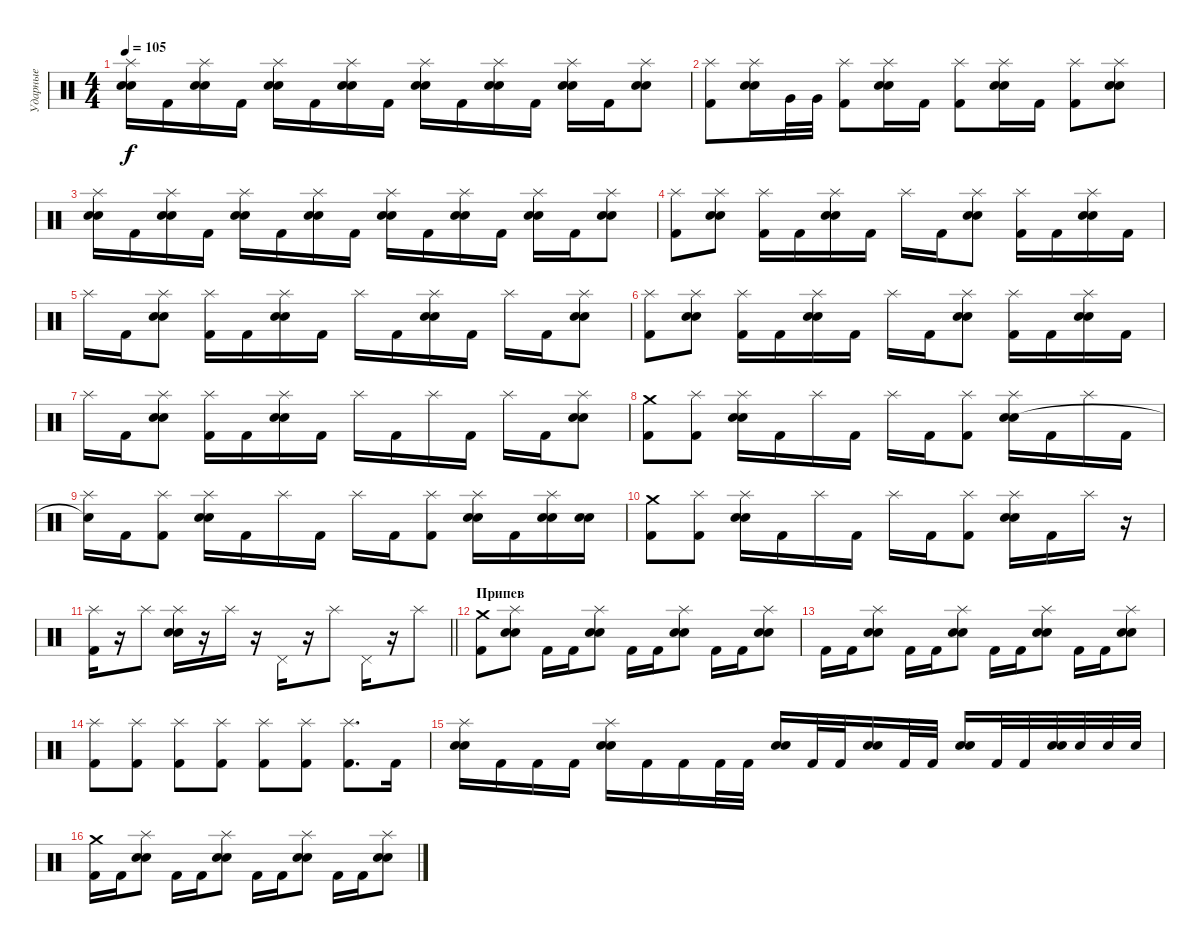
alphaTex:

\track ("Ударные" "Ударные") {instrument percussion}
\staff {score}
\articulation defaults
\ts (4 4)
\tempo 105
\clef neutral
\ks c
("Splash (hit)" "Electric Snare (hit)" "Snare (hit) 2").16{dy f} "Kick (hit) 2".16 ("Splash (hit)" "Electric Snare (hit)" "Snare (hit) 2").16 "Kick (hit) 2".16 ("Splash (hit)" "Electric Snare (hit)" "Snare (hit) 2").16 "Kick (hit) 2".16 ("Splash (hit)" "Electric Snare (hit)" "Snare (hit) 2").16 "Kick (hit) 2".16 ("Splash (hit)" "Electric Snare (hit)" "Snare (hit) 2").16 "Kick (hit) 2".16 ("Splash (hit)" "Electric Snare (hit)" "Snare (hit) 2").16 "Kick (hit) 2".16 ("Splash (hit)" "Electric Snare (hit)" "Snare (hit) 2").16 "Kick (hit) 2".16 ("Splash (hit)" "Electric Snare (hit)" "Snare (hit) 2").8 |
("Splash (hit)" "Kick (hit) 2").8 ("Splash (hit)" "Electric Snare (hit)" "Snare (hit) 2").16 "Very Low Tom (hit)".32 "Very Low Tom (hit)".32 ("Splash (hit)" "Kick (hit) 2").8 ("Splash (hit)" "Electric Snare (hit)" "Snare (hit) 2").16 "Kick (hit) 2".16 ("Splash (hit)" "Kick (hit) 2").8 ("Splash (hit)" "Electric Snare (hit)" "Snare (hit) 2").16 "Kick (hit) 2".16 ("Splash (hit)" "Kick (hit) 2").8 ("Splash (hit)" "Electric Snare (hit)" "Snare (hit) 2").8 |
("Splash (hit)" "Electric Snare (hit)" "Snare (hit) 2").16 "Kick (hit) 2".16 ("Splash (hit)" "Electric Snare (hit)" "Snare (hit) 2").16 "Kick (hit) 2".16 ("Splash (hit)" "Electric Snare (hit)" "Snare (hit) 2").16 "Kick (hit) 2".16 ("Splash (hit)" "Electric Snare (hit)" "Snare (hit) 2").16 "Kick (hit) 2".16 ("Splash (hit)" "Electric Snare (hit)" "Snare (hit) 2").16 "Kick (hit) 2".16 ("Splash (hit)" "Electric Snare (hit)" "Snare (hit) 2").16 "Kick (hit) 2".16 ("Splash (hit)" "Electric Snare (hit)" "Snare (hit) 2").16 "Kick (hit) 2".16 ("Splash (hit)" "Electric Snare (hit)" "Snare (hit) 2").8 |
("Splash (hit)" "Kick (hit) 2").8 ("Splash (hit)" "Electric Snare (hit)" "Snare (hit) 2").8 ("Splash (hit)" "Kick (hit) 2").16 "Kick (hit) 2".16 ("Splash (hit)" "Electric Snare (hit)" "Snare (hit) 2").16 "Kick (hit) 2".16 "Splash (hit)".16 "Kick (hit) 2".16 ("Splash (hit)" "Electric Snare (hit)" "Snare (hit) 2").8 ("Splash (hit)" "Kick (hit) 2").16 "Kick (hit) 2".16 ("Splash (hit)" "Electric Snare (hit)" "Snare (hit) 2").16 "Kick (hit) 2".16 |
"Splash (hit)".16 "Kick (hit) 2".16 ("Splash (hit)" "Electric Snare (hit)" "Snare (hit) 2").8 ("Splash (hit)" "Kick (hit) 2").16 "Kick (hit) 2".16 ("Splash (hit)" "Electric Snare (hit)" "Snare (hit) 2").16 "Kick (hit) 2".16 "Splash (hit)".16 "Kick (hit) 2".16 ("Splash (hit)" "Electric Snare (hit)" "Snare (hit) 2").16 "Kick (hit) 2".16 "Splash (hit)".16 "Kick (hit) 2".16 ("Splash (hit)" "Electric Snare (hit)" "Snare (hit) 2").8 |
("Splash (hit)" "Kick (hit) 2").8 ("Splash (hit)" "Electric Snare (hit)" "Snare (hit) 2").8 ("Splash (hit)" "Kick (hit) 2").16 "Kick (hit) 2".16 ("Splash (hit)" "Electric Snare (hit)" "Snare (hit) 2").16 "Kick (hit) 2".16 "Splash (hit)".16 "Kick (hit) 2".16 ("Splash (hit)" "Electric Snare (hit)" "Snare (hit) 2").8 ("Splash (hit)" "Kick (hit) 2").16 "Kick (hit) 2".16 ("Splash (hit)" "Electric Snare (hit)" "Snare (hit) 2").16 "Kick (hit) 2".16 |
"Splash (hit)".16 "Kick (hit) 2".16 ("Splash (hit)" "Electric Snare (hit)" "Snare (hit) 2").8 ("Splash (hit)" "Kick (hit) 2").16 "Kick (hit) 2".16 ("Splash (hit)" "Electric Snare (hit)" "Snare (hit) 2").16 "Kick (hit) 2".16 "Splash (hit)".16 "Kick (hit) 2".16 "Splash (hit)".16 "Kick (hit) 2".16 "Splash (hit)".16 "Kick (hit) 2".16 ("Splash (hit)" "Electric Snare (hit)" "Snare (hit) 2").8 |
("Crash medium (hit)" "Kick (hit) 2").8 ("Splash (hit)" "Kick (hit) 2").8 ("Splash (hit)" "Electric Snare (hit)" "Snare (hit) 2").16 "Kick (hit) 2".16 "Splash (hit)".16 "Kick (hit) 2".16 "Splash (hit)".16 "Kick (hit) 2".16 ("Splash (hit)" "Kick (hit) 2").8 ("Splash (hit)" "Electric Snare (hit)" "Snare (hit) 2").16 "Kick (hit) 2".16 "Splash (hit)".16 "Kick (hit) 2".16 |
("Splash (hit)" "Snare (hit)"{t}).16 "Kick (hit) 2".16 ("Splash (hit)" "Kick (hit) 2").8 ("Splash (hit)" "Electric Snare (hit)" "Snare (hit) 2").16 "Kick (hit) 2".16 "Splash (hit)".16 "Kick (hit) 2".16 "Splash (hit)".16 "Kick (hit) 2".16 ("Splash (hit)" "Kick (hit) 2").8 ("Splash (hit)" "Electric Snare (hit)" "Snare (hit) 2").16 "Kick (hit) 2".16 ("Splash (hit)" "Electric Snare (hit)" "Snare (hit) 2").16 ("Electric Snare (hit)" "Snare (hit) 2").16 |
("Crash medium (hit)" "Kick (hit) 2").8 ("Splash (hit)" "Kick (hit) 2").8 ("Splash (hit)" "Electric Snare (hit)" "Snare (hit) 2").16 "Kick (hit) 2".16 "Splash (hit)".16 "Kick (hit) 2".16 "Splash (hit)".16 "Kick (hit) 2".16 ("Splash (hit)" "Kick (hit) 2").8 ("Splash (hit)" "Electric Snare (hit)" "Snare (hit) 2").16 "Kick (hit) 2".16 "Splash (hit)".16 r.16 |
\barLineRight lightlight
("Splash (hit)" "Kick (hit) 2").16 r.16 "Splash (hit)".8 ("Splash (hit)" "Electric Snare (hit)" "Snare (hit) 2").16 r.16 "Splash (hit)".16 r.16 "Pedal Hi-Hat (hit)".16 r.16 "Splash (hit)".8 "Pedal Hi-Hat (hit)".16 r.16 "Splash (hit)".8 |
\section ("" "Припев")
("Crash medium (hit)" "Kick (hit) 2").8 ("Splash (hit)" "Electric Snare (hit)" "Snare (hit) 2").8 "Kick (hit) 2".16 "Kick (hit) 2".16 ("Splash (hit)" "Electric Snare (hit)" "Snare (hit) 2").8 "Kick (hit) 2".16 "Kick (hit) 2".16 ("Splash (hit)" "Electric Snare (hit)" "Snare (hit) 2").8 "Kick (hit) 2".16 "Kick (hit) 2".16 ("Splash (hit)" "Electric Snare (hit)" "Snare (hit) 2").8 |
"Kick (hit) 2".16 "Kick (hit) 2".16 ("Splash (hit)" "Electric Snare (hit)" "Snare (hit) 2").8 "Kick (hit) 2".16 "Kick (hit) 2".16 ("Splash (hit)" "Electric Snare (hit)" "Snare (hit) 2").8 "Kick (hit) 2".16 "Kick (hit) 2".16 ("Splash (hit)" "Electric Snare (hit)" "Snare (hit) 2").8 "Kick (hit) 2".16 "Kick (hit) 2".16 ("Splash (hit)" "Electric Snare (hit)" "Snare (hit) 2").8 |
("Splash (hit)" "Kick (hit) 2").8 ("Splash (hit)" "Kick (hit) 2").8 ("Splash (hit)" "Kick (hit) 2").8 ("Splash (hit)" "Kick (hit) 2").8 ("Splash (hit)" "Kick (hit) 2").8 ("Splash (hit)" "Kick (hit) 2").8 ("Splash (hit)" "Kick (hit) 2").8{d} "Kick (hit) 2".16 |
("Splash (hit)" "Electric Snare (hit)" "Snare (hit) 2").16 "Kick (hit) 2".16 "Kick (hit) 2".16 "Kick (hit) 2".16 ("Splash (hit)" "Electric Snare (hit)" "Snare (hit) 2").16 "Kick (hit) 2".16 "Kick (hit) 2".16 "Kick (hit) 2".32 "Kick (hit) 2".32 ("Electric Snare (hit)" "Snare (hit) 2").16 "Kick (hit) 2".32 "Kick (hit) 2".32 ("Electric Snare (hit)" "Snare (hit) 2").16 "Kick (hit) 2".32 "Kick (hit) 2".32 ("Electric Snare (hit)" "Snare (hit) 2").16 "Kick (hit) 2".32 "Kick (hit) 2".32 ("Electric Snare (hit)" "Snare (hit) 2").32 "Electric Snare (hit)".32 "Electric Snare (hit)".32 "Electric Snare (hit)".32 |
("Crash medium (hit)" "Kick (hit) 2").16 "Kick (hit) 2".16 ("Splash (hit)" "Electric Snare (hit)" "Snare (hit) 2").8 "Kick (hit) 2".16 "Kick (hit) 2".16 ("Splash (hit)" "Electric Snare (hit)" "Snare (hit) 2").8 "Kick (hit) 2".16 "Kick (hit) 2".16 ("Splash (hit)" "Electric Snare (hit)" "Snare (hit) 2").8 "Kick (hit) 2".16 "Kick (hit) 2".16 ("Splash (hit)" "Electric Snare (hit)" "Snare (hit) 2").8
